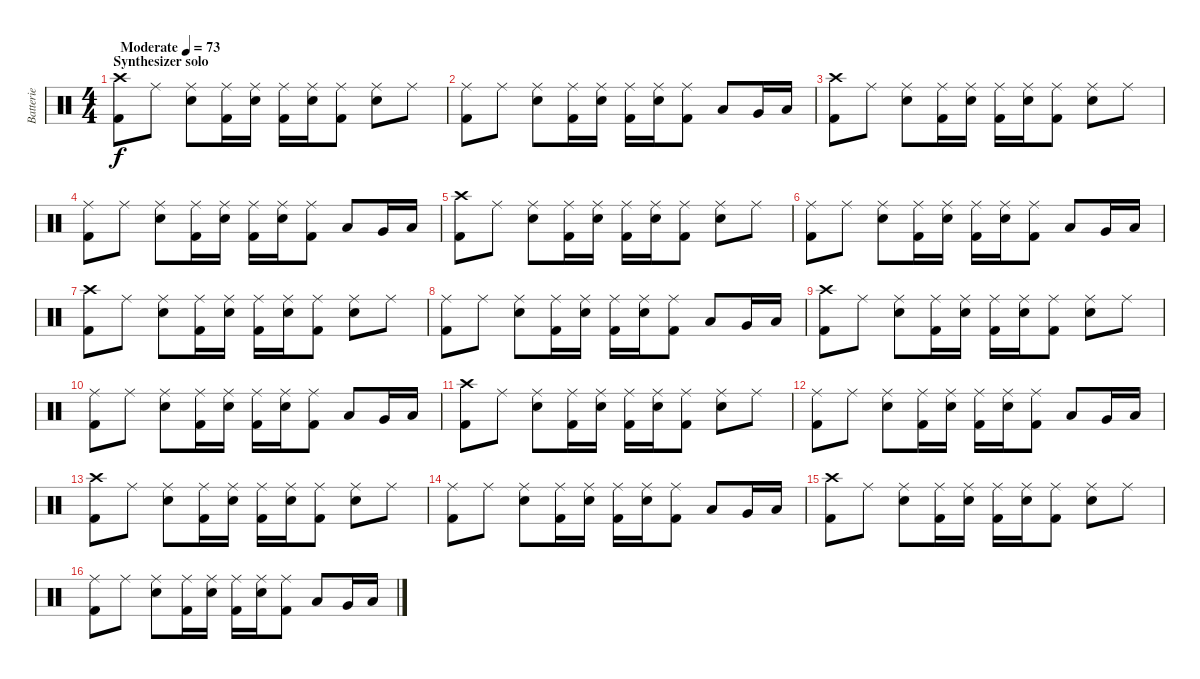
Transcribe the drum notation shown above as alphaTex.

\track ("Batterie" "Batterie") {instrument percussion}
\staff {score}
\articulation defaults
\ts (4 4)
\section ("" "Synthesizer solo")
\tempo (73 "Moderate")
\clef neutral
\ks c
("Crash high (hit)" "Kick (hit) 2").8{dy f} "Ride (middle)".8 ("Ride (middle)" "Snare (hit) 2").8 ("Ride (middle)" "Kick (hit) 2").16 ("Ride (middle)" "Snare (hit) 2").16 ("Ride (middle)" "Kick (hit) 2").16 ("Ride (middle)" "Snare (hit) 2").16 ("Ride (middle)" "Kick (hit) 2").8 ("Ride (middle)" "Snare (hit) 2").8 "Ride (middle)".8 |
("Ride (middle)" "Kick (hit) 2").8 "Ride (middle)".8 ("Ride (middle)" "Snare (hit) 2").8 ("Ride (middle)" "Kick (hit) 2").16 ("Ride (middle)" "Snare (hit) 2").16 ("Ride (middle)" "Kick (hit) 2").16 ("Ride (middle)" "Snare (hit) 2").16 ("Ride (middle)" "Kick (hit) 2").8 "Low Tom (hit)".8 "Very Low Tom (hit)".16 "Low Floor Tom (hit)".16 |
("Crash high (hit)" "Kick (hit) 2").8 "Ride (middle)".8 ("Ride (middle)" "Snare (hit) 2").8 ("Ride (middle)" "Kick (hit) 2").16 ("Ride (middle)" "Snare (hit) 2").16 ("Ride (middle)" "Kick (hit) 2").16 ("Ride (middle)" "Snare (hit) 2").16 ("Ride (middle)" "Kick (hit) 2").8 ("Ride (middle)" "Snare (hit) 2").8 "Ride (middle)".8 |
("Ride (middle)" "Kick (hit) 2").8 "Ride (middle)".8 ("Ride (middle)" "Snare (hit) 2").8 ("Ride (middle)" "Kick (hit) 2").16 ("Ride (middle)" "Snare (hit) 2").16 ("Ride (middle)" "Kick (hit) 2").16 ("Ride (middle)" "Snare (hit) 2").16 ("Ride (middle)" "Kick (hit) 2").8 "Low Tom (hit)".8 "Very Low Tom (hit)".16 "Low Floor Tom (hit)".16 |
("Crash high (hit)" "Kick (hit) 2").8 "Ride (middle)".8 ("Ride (middle)" "Snare (hit) 2").8 ("Ride (middle)" "Kick (hit) 2").16 ("Ride (middle)" "Snare (hit) 2").16 ("Ride (middle)" "Kick (hit) 2").16 ("Ride (middle)" "Snare (hit) 2").16 ("Ride (middle)" "Kick (hit) 2").8 ("Ride (middle)" "Snare (hit) 2").8 "Ride (middle)".8 |
("Ride (middle)" "Kick (hit) 2").8 "Ride (middle)".8 ("Ride (middle)" "Snare (hit) 2").8 ("Ride (middle)" "Kick (hit) 2").16 ("Ride (middle)" "Snare (hit) 2").16 ("Ride (middle)" "Kick (hit) 2").16 ("Ride (middle)" "Snare (hit) 2").16 ("Ride (middle)" "Kick (hit) 2").8 "Low Tom (hit)".8 "Very Low Tom (hit)".16 "Low Floor Tom (hit)".16 |
("Crash high (hit)" "Kick (hit) 2").8 "Ride (middle)".8 ("Ride (middle)" "Snare (hit) 2").8 ("Ride (middle)" "Kick (hit) 2").16 ("Ride (middle)" "Snare (hit) 2").16 ("Ride (middle)" "Kick (hit) 2").16 ("Ride (middle)" "Snare (hit) 2").16 ("Ride (middle)" "Kick (hit) 2").8 ("Ride (middle)" "Snare (hit) 2").8 "Ride (middle)".8 |
("Ride (middle)" "Kick (hit) 2").8 "Ride (middle)".8 ("Ride (middle)" "Snare (hit) 2").8 ("Ride (middle)" "Kick (hit) 2").16 ("Ride (middle)" "Snare (hit) 2").16 ("Ride (middle)" "Kick (hit) 2").16 ("Ride (middle)" "Snare (hit) 2").16 ("Ride (middle)" "Kick (hit) 2").8 "Low Tom (hit)".8 "Very Low Tom (hit)".16 "Low Floor Tom (hit)".16 |
("Crash high (hit)" "Kick (hit) 2").8 "Ride (middle)".8 ("Ride (middle)" "Snare (hit) 2").8 ("Ride (middle)" "Kick (hit) 2").16 ("Ride (middle)" "Snare (hit) 2").16 ("Ride (middle)" "Kick (hit) 2").16 ("Ride (middle)" "Snare (hit) 2").16 ("Ride (middle)" "Kick (hit) 2").8 ("Ride (middle)" "Snare (hit) 2").8 "Ride (middle)".8 |
("Ride (middle)" "Kick (hit) 2").8 "Ride (middle)".8 ("Ride (middle)" "Snare (hit) 2").8 ("Ride (middle)" "Kick (hit) 2").16 ("Ride (middle)" "Snare (hit) 2").16 ("Ride (middle)" "Kick (hit) 2").16 ("Ride (middle)" "Snare (hit) 2").16 ("Ride (middle)" "Kick (hit) 2").8 "Low Tom (hit)".8 "Very Low Tom (hit)".16 "Low Floor Tom (hit)".16 |
("Crash high (hit)" "Kick (hit) 2").8 "Ride (middle)".8 ("Ride (middle)" "Snare (hit) 2").8 ("Ride (middle)" "Kick (hit) 2").16 ("Ride (middle)" "Snare (hit) 2").16 ("Ride (middle)" "Kick (hit) 2").16 ("Ride (middle)" "Snare (hit) 2").16 ("Ride (middle)" "Kick (hit) 2").8 ("Ride (middle)" "Snare (hit) 2").8 "Ride (middle)".8 |
("Ride (middle)" "Kick (hit) 2").8 "Ride (middle)".8 ("Ride (middle)" "Snare (hit) 2").8 ("Ride (middle)" "Kick (hit) 2").16 ("Ride (middle)" "Snare (hit) 2").16 ("Ride (middle)" "Kick (hit) 2").16 ("Ride (middle)" "Snare (hit) 2").16 ("Ride (middle)" "Kick (hit) 2").8 "Low Tom (hit)".8 "Very Low Tom (hit)".16 "Low Floor Tom (hit)".16 |
("Crash high (hit)" "Kick (hit) 2").8 "Ride (middle)".8 ("Ride (middle)" "Snare (hit) 2").8 ("Ride (middle)" "Kick (hit) 2").16 ("Ride (middle)" "Snare (hit) 2").16 ("Ride (middle)" "Kick (hit) 2").16 ("Ride (middle)" "Snare (hit) 2").16 ("Ride (middle)" "Kick (hit) 2").8 ("Ride (middle)" "Snare (hit) 2").8 "Ride (middle)".8 |
("Ride (middle)" "Kick (hit) 2").8 "Ride (middle)".8 ("Ride (middle)" "Snare (hit) 2").8 ("Ride (middle)" "Kick (hit) 2").16 ("Ride (middle)" "Snare (hit) 2").16 ("Ride (middle)" "Kick (hit) 2").16 ("Ride (middle)" "Snare (hit) 2").16 ("Ride (middle)" "Kick (hit) 2").8 "Low Tom (hit)".8 "Very Low Tom (hit)".16 "Low Floor Tom (hit)".16 |
("Crash high (hit)" "Kick (hit) 2").8 "Ride (middle)".8 ("Ride (middle)" "Snare (hit) 2").8 ("Ride (middle)" "Kick (hit) 2").16 ("Ride (middle)" "Snare (hit) 2").16 ("Ride (middle)" "Kick (hit) 2").16 ("Ride (middle)" "Snare (hit) 2").16 ("Ride (middle)" "Kick (hit) 2").8 ("Ride (middle)" "Snare (hit) 2").8 "Ride (middle)".8 |
("Ride (middle)" "Kick (hit) 2").8 "Ride (middle)".8 ("Ride (middle)" "Snare (hit) 2").8 ("Ride (middle)" "Kick (hit) 2").16 ("Ride (middle)" "Snare (hit) 2").16 ("Ride (middle)" "Kick (hit) 2").16 ("Ride (middle)" "Snare (hit) 2").16 ("Ride (middle)" "Kick (hit) 2").8 "Low Tom (hit)".8 "Very Low Tom (hit)".16 "Low Floor Tom (hit)".16
